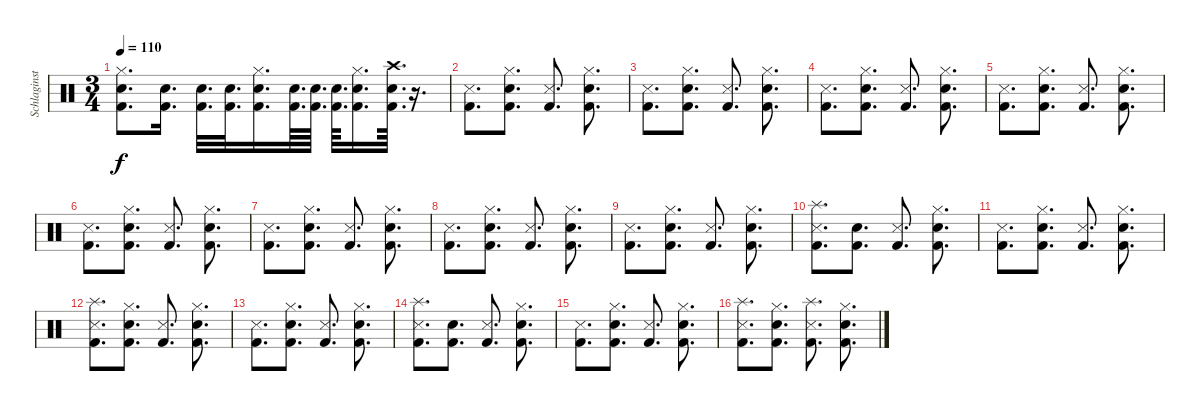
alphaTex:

\track ("Schlaginstrumente - Auswahl" "Schlaginst") {instrument percussion}
\staff {score}
\articulation defaults
\ts (3 4)
\tempo 110
\clef neutral
\ks c
("Hi-Hat (closed)" "Electric Snare (hit)" "Kick (hit) 2").8{d dy f} ("Snare (hit) 2" "Kick (hit) 2").16{d} ("Electric Snare (hit)" "Kick (hit) 2").32{d} ("Electric Snare (hit)" "Kick (hit) 2").32{d} ("Hi-Hat (closed)" "Snare (hit) 2" "Kick (hit) 2").16{d} ("Electric Snare (hit)" "Kick (hit) 2").64{d} ("Electric Snare (hit)" "Kick (hit) 2").64{d} ("Electric Snare (hit)" "Kick (hit) 2").64{d} ("Hi-Hat (closed)" "Snare (hit) 2" "Kick (hit) 2").16{d} ("Crash high (hit)" "Electric Snare (hit)" "Kick (hit) 2").64{d} r.16{d} |
("Snare (side stick) 3" "Kick (hit) 2").8{d} ("Hi-Hat (closed)" "Snare (hit) 2" "Kick (hit) 2").8{d} ("Snare (side stick) 3" "Kick (hit) 2").8{d} ("Hi-Hat (closed)" "Snare (hit) 2" "Kick (hit) 2").8{d} |
("Snare (side stick) 3" "Kick (hit) 2").8{d} ("Hi-Hat (closed)" "Snare (hit) 2" "Kick (hit) 2").8{d} ("Snare (side stick) 3" "Kick (hit) 2").8{d} ("Hi-Hat (closed)" "Snare (hit) 2" "Kick (hit) 2").8{d} |
("Snare (side stick) 3" "Kick (hit) 2").8{d} ("Hi-Hat (closed)" "Snare (hit) 2" "Kick (hit) 2").8{d} ("Snare (side stick) 3" "Kick (hit) 2").8{d} ("Hi-Hat (closed)" "Snare (hit) 2" "Kick (hit) 2").8{d} |
("Snare (side stick) 3" "Kick (hit) 2").8{d} ("Hi-Hat (closed)" "Snare (hit) 2" "Kick (hit) 2").8{d} ("Snare (side stick) 3" "Kick (hit) 2").8{d} ("Hi-Hat (closed)" "Snare (hit) 2" "Kick (hit) 2").8{d} |
("Snare (side stick) 3" "Kick (hit) 2").8{d} ("Hi-Hat (closed)" "Snare (hit) 2" "Kick (hit) 2").8{d} ("Snare (side stick) 3" "Kick (hit) 2").8{d} ("Hi-Hat (closed)" "Snare (hit) 2" "Kick (hit) 2").8{d} |
("Snare (side stick) 3" "Kick (hit) 2").8{d} ("Hi-Hat (closed)" "Snare (hit) 2" "Kick (hit) 2").8{d} ("Snare (side stick) 3" "Kick (hit) 2").8{d} ("Hi-Hat (closed)" "Snare (hit) 2" "Kick (hit) 2").8{d} |
("Snare (side stick) 3" "Kick (hit) 2").8{d} ("Hi-Hat (closed)" "Snare (hit) 2" "Kick (hit) 2").8{d} ("Snare (side stick) 3" "Kick (hit) 2").8{d} ("Hi-Hat (closed)" "Snare (hit) 2" "Kick (hit) 2").8{d} |
("Snare (side stick) 3" "Kick (hit) 2").8{d} ("Hi-Hat (closed)" "Snare (hit) 2" "Kick (hit) 2").8{d} ("Snare (side stick) 3" "Kick (hit) 2").8{d} ("Hi-Hat (closed)" "Snare (hit) 2" "Kick (hit) 2").8{d} |
("Splash (hit)" "Snare (side stick) 3" "Kick (hit) 2").8{d} ("Snare (hit) 2" "Kick (hit) 2").8{d} ("Snare (side stick) 3" "Kick (hit) 2").8{d} ("Hi-Hat (closed)" "Snare (hit) 2" "Kick (hit) 2").8{d} |
("Snare (side stick) 3" "Kick (hit) 2").8{d} ("Hi-Hat (closed)" "Snare (hit) 2" "Kick (hit) 2").8{d} ("Snare (side stick) 3" "Kick (hit) 2").8{d} ("Hi-Hat (closed)" "Snare (hit) 2" "Kick (hit) 2").8{d} |
("Splash (hit)" "Snare (side stick) 3" "Kick (hit) 2").8{d} ("Hi-Hat (closed)" "Snare (hit) 2" "Kick (hit) 2").8{d} ("Snare (side stick) 3" "Kick (hit) 2").8{d} ("Hi-Hat (closed)" "Snare (hit) 2" "Kick (hit) 2").8{d} |
("Snare (side stick) 3" "Kick (hit) 2").8{d} ("Hi-Hat (closed)" "Snare (hit) 2" "Kick (hit) 2").8{d} ("Snare (side stick) 3" "Kick (hit) 2").8{d} ("Hi-Hat (closed)" "Snare (hit) 2" "Kick (hit) 2").8{d} |
("Splash (hit)" "Snare (side stick) 3" "Kick (hit) 2").8{d} ("Snare (hit) 2" "Kick (hit) 2").8{d} ("Snare (side stick) 3" "Kick (hit) 2").8{d} ("Hi-Hat (closed)" "Snare (hit) 2" "Kick (hit) 2").8{d} |
("Snare (side stick) 3" "Kick (hit) 2").8{d} ("Hi-Hat (closed)" "Snare (hit) 2" "Kick (hit) 2").8{d} ("Snare (side stick) 3" "Kick (hit) 2").8{d} ("Hi-Hat (closed)" "Snare (hit) 2" "Kick (hit) 2").8{d} |
("Splash (hit)" "Snare (side stick) 3" "Kick (hit) 2").8{d} ("Hi-Hat (closed)" "Snare (hit) 2" "Kick (hit) 2").8{d} ("Splash (hit)" "Snare (side stick) 3" "Kick (hit) 2").8{d} ("Hi-Hat (closed)" "Snare (hit) 2" "Kick (hit) 2").8{d}
